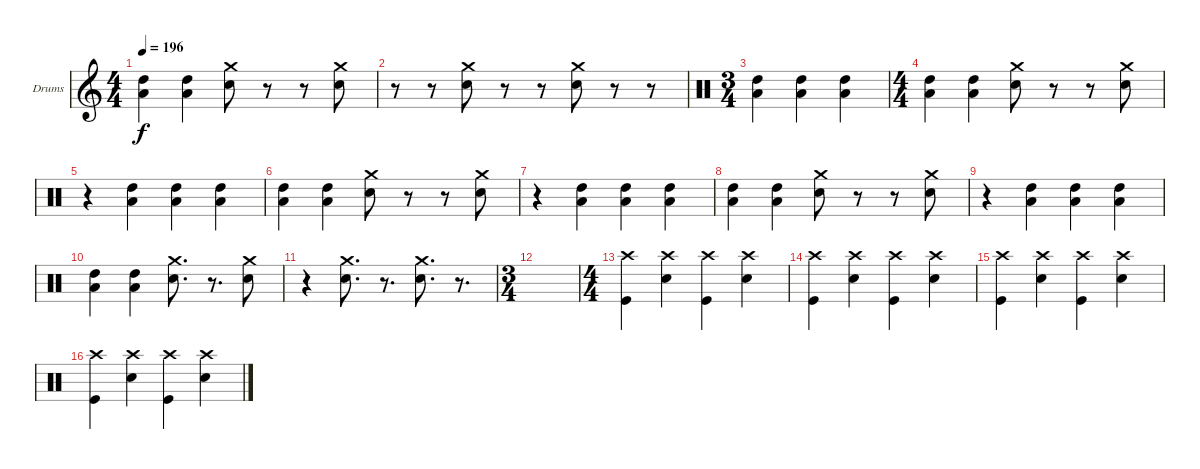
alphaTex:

\defaultSystemsLayout 4
\bracketExtendMode groupsimilarinstruments
\firstSystemTrackNameOrientation horizontal
\otherSystemsTrackNameOrientation horizontal
\track ("Lars Ulrich (Drum)" "Drums") {instrument percussion}
\staff {score}
\articulation defaults
\ts (4 4)
\tempo 196
\clef g2
\scale
0.333333
\ks c
("High Tom (hit)" "Low Tom (hit)").4{dy f} ("High Tom (hit)" "Low Tom (hit)").4 ("Crash medium (hit)" "Snare (hit) 2").8 r.8 r.8 ("Crash medium (hit)" "Snare (hit) 2").8 |
\scale
0.333333 r.8 r.8 ("Crash medium (hit)" "Snare (hit) 2").8 r.8 r.8 ("Crash medium (hit)" "Snare (hit) 2").8 r.8 r.8 |
\ts (3 4)
\clef neutral
\scale
0.391473 ("High Tom (hit)" "Low Tom (hit)").4 ("High Tom (hit)" "Low Tom (hit)").4 ("High Tom (hit)" "Low Tom (hit)").4 |
\ts (4 4)
\scale
0.391473 ("High Tom (hit)" "Low Tom (hit)").4 ("High Tom (hit)" "Low Tom (hit)").4 ("Crash medium (hit)" "Snare (hit) 2").8 r.8 r.8 ("Crash medium (hit)" "Snare (hit) 2").8 |
\scale
0.217054 r.4 ("High Tom (hit)" "Low Tom (hit)").4 ("High Tom (hit)" "Low Tom (hit)").4 ("High Tom (hit)" "Low Tom (hit)").4 |
\scale
0.333333 ("High Tom (hit)" "Low Tom (hit)").4 ("High Tom (hit)" "Low Tom (hit)").4 ("Crash medium (hit)" "Snare (hit) 2").8 r.8 r.8 ("Crash medium (hit)" "Snare (hit) 2").8 |
\scale
0.333333 r.4 ("High Tom (hit)" "Low Tom (hit)").4 ("High Tom (hit)" "Low Tom (hit)").4 ("High Tom (hit)" "Low Tom (hit)").4 |
\scale
0.333333 ("High Tom (hit)" "Low Tom (hit)").4 ("High Tom (hit)" "Low Tom (hit)").4 ("Crash medium (hit)" "Snare (hit) 2").8 r.8 r.8 ("Crash medium (hit)" "Snare (hit) 2").8 |
\scale
0.333333 r.4 ("High Tom (hit)" "Low Tom (hit)").4 ("High Tom (hit)" "Low Tom (hit)").4 ("High Tom (hit)" "Low Tom (hit)").4 |
\scale
0.333333 ("High Tom (hit)" "Low Tom (hit)").4 ("High Tom (hit)" "Low Tom (hit)").4 ("Crash medium (hit)" "Snare (hit) 2").8{d} r.8{d} ("Crash medium (hit)" "Snare (hit) 2").8 |
\scale
0.333333 r.4 ("Crash medium (hit)" "Snare (hit) 2").8{d} r.8{d} ("Crash medium (hit)" "Snare (hit) 2").8{d} r.8{d} |
\ts (3 4)
\scale
0.391473 |
\ts (4 4)
\scale
0.391473 ("Crash high (hit)" "Kick (hit)").4 ("Crash high (hit)" "Snare (hit) 2").4 ("Crash high (hit)" "Kick (hit)").4 ("Crash high (hit)" "Snare (hit) 2").4 |
\scale
0.217054 ("Crash high (hit)" "Kick (hit)").4 ("Crash high (hit)" "Snare (hit) 2").4 ("Crash high (hit)" "Kick (hit)").4 ("Crash high (hit)" "Snare (hit) 2").4 |
\scale
0.333333 ("Crash high (hit)" "Kick (hit)").4 ("Crash high (hit)" "Snare (hit) 2").4 ("Crash high (hit)" "Kick (hit)").4 ("Crash high (hit)" "Snare (hit) 2").4 |
\scale
0.333333 ("Crash high (hit)" "Kick (hit)").4 ("Crash high (hit)" "Snare (hit) 2").4 ("Crash high (hit)" "Kick (hit)").4 ("Crash high (hit)" "Snare (hit) 2").4
